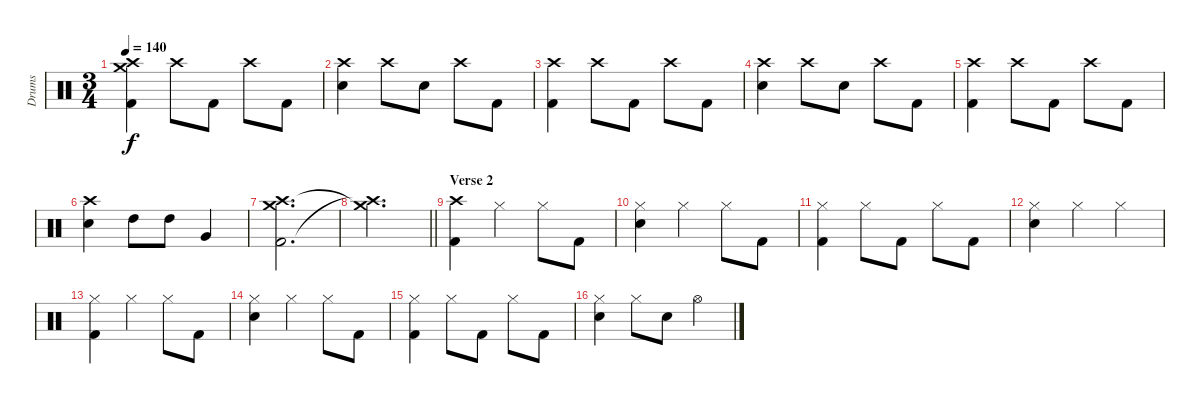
\track ("Drums" "Drums") {instrument percussion}
\staff {score}
\articulation defaults
\ts (3 4)
\tempo 140
\clef neutral
\ks c
("Kick (hit) 2" "Crash high (hit)" "Crash medium (hit)").4{dy f} "Crash high (hit)".8 "Kick (hit) 2".8 "Crash high (hit)".8 "Kick (hit) 2".8 |
("Electric Snare (hit)" "Crash high (hit)").4 "Crash high (hit)".8 "Electric Snare (hit)".8 "Crash high (hit)".8 "Kick (hit) 2".8 |
("Kick (hit) 2" "Crash high (hit)").4 "Crash high (hit)".8 "Kick (hit) 2".8 "Crash high (hit)".8 "Kick (hit) 2".8 |
("Electric Snare (hit)" "Crash high (hit)").4 "Crash high (hit)".8 "Electric Snare (hit)".8 "Crash high (hit)".8 "Kick (hit) 2".8 |
("Kick (hit) 2" "Crash high (hit)").4 "Crash high (hit)".8 "Kick (hit) 2".8 "Crash high (hit)".8 "Kick (hit) 2".8 |
("Electric Snare (hit)" "Crash high (hit)").4 "High Tom (hit)".8 "High Tom (hit)".8 "Very Low Tom (hit)".4 |
("Kick (hit) 2" "Crash high (hit)" "Crash medium (hit)").2{d} |
\barLineRight lightlight
("Crash high (hit)"{t} "Crash medium (hit)"{t}).2{d} |
\section ("" "Verse 2")
("Kick (hit) 2" "Crash high (hit)").4 "Hi-Hat (closed)".4 "Hi-Hat (closed)".8 "Kick (hit) 2".8 |
("Electric Snare (hit)" "Hi-Hat (closed)").4 "Hi-Hat (closed)".4 "Hi-Hat (closed)".8 "Kick (hit) 2".8 |
("Kick (hit) 2" "Hi-Hat (closed)").4 "Hi-Hat (closed)".8 "Kick (hit) 2".8 "Hi-Hat (closed)".8 "Kick (hit) 2".8 |
("Electric Snare (hit)" "Hi-Hat (closed)").4 "Hi-Hat (closed)".4 "Hi-Hat (closed)".4 |
("Kick (hit) 2" "Hi-Hat (closed)").4 "Hi-Hat (closed)".4 "Hi-Hat (closed)".8 "Kick (hit) 2".8 |
("Electric Snare (hit)" "Hi-Hat (closed)").4 "Hi-Hat (closed)".4 "Hi-Hat (closed)".8 "Kick (hit) 2".8 |
("Kick (hit) 2" "Hi-Hat (closed)").4 "Hi-Hat (closed)".8 "Kick (hit) 2".8 "Hi-Hat (closed)".8 "Kick (hit) 2".8 |
("Electric Snare (hit)" "Hi-Hat (closed)").4 "Hi-Hat (closed)".8 "Electric Snare (hit)".8 "Hi-Hat (open)".4
